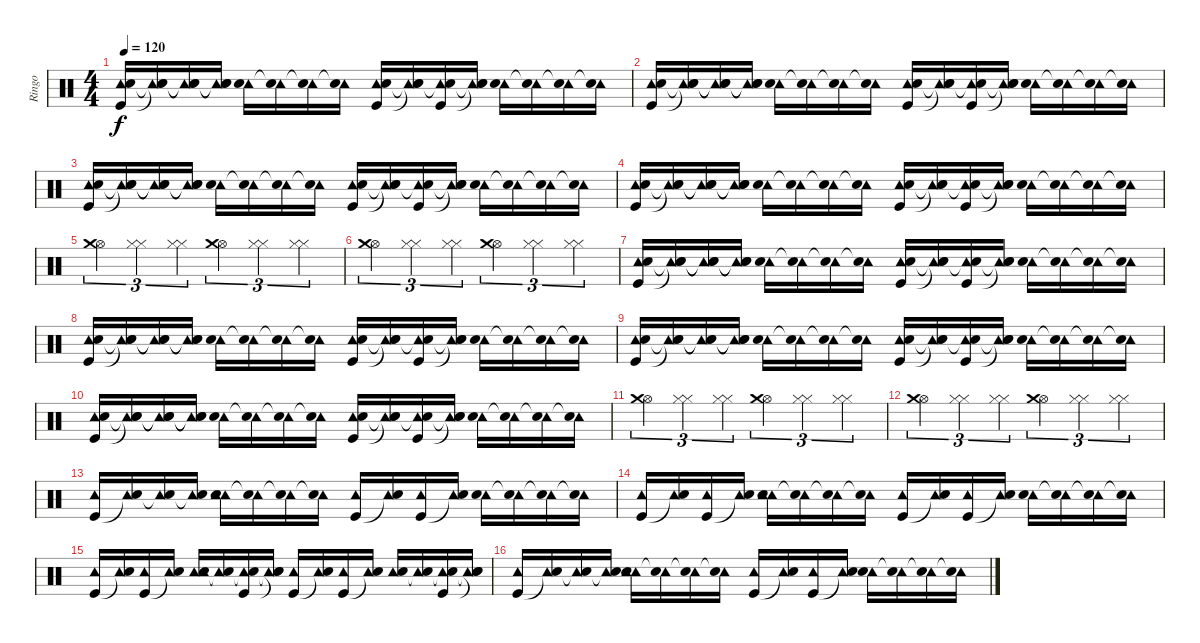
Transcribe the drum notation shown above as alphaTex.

\track ("Ringo" "Ringo") {instrument percussion}
\staff {score}
\articulation defaults
\ts (4 4)
\tempo 120
\clef neutral
\ks c
("Tambourine (hit)" "Snare (hit) 2" "Kick (hit)").16{dy f} ("Tambourine (hit)" "Snare (hit)"{t} "Snare (hit)"{t}).16 ("Tambourine (hit)" "Snare (hit)"{t} "Snare (hit)"{t}).16 ("Tambourine (hit)" "Snare (hit)"{t} "Snare (hit)"{t}).16 ("Tambourine (hit)" "Snare (hit) 2").16 ("Tambourine (hit)" "Snare (hit)"{t}).16 ("Tambourine (hit)" "Snare (hit)"{t}).16 ("Tambourine (hit)" "Snare (hit)"{t}).16 ("Tambourine (hit)" "Snare (hit) 2" "Kick (hit)").16 ("Tambourine (hit)" "Snare (hit)"{t} "Snare (hit)"{t}).16 ("Tambourine (hit)" "Snare (hit)"{t} "Kick (hit)").16 ("Tambourine (hit)" "Snare (hit)"{t} "Snare (hit)"{t}).16 ("Tambourine (hit)" "Snare (hit) 2").16 ("Tambourine (hit)" "Snare (hit)"{t}).16 ("Tambourine (hit)" "Snare (hit)"{t}).16 ("Tambourine (hit)" "Snare (hit)"{t}).16 |
("Tambourine (hit)" "Snare (hit) 2" "Kick (hit)").16 ("Tambourine (hit)" "Snare (hit)"{t} "Snare (hit)"{t}).16 ("Tambourine (hit)" "Snare (hit)"{t} "Snare (hit)"{t}).16 ("Tambourine (hit)" "Snare (hit)"{t} "Snare (hit)"{t}).16 ("Tambourine (hit)" "Snare (hit) 2").16 ("Tambourine (hit)" "Snare (hit)"{t}).16 ("Tambourine (hit)" "Snare (hit)"{t}).16 ("Tambourine (hit)" "Snare (hit)"{t}).16 ("Tambourine (hit)" "Snare (hit) 2" "Kick (hit)").16 ("Tambourine (hit)" "Snare (hit)"{t} "Snare (hit)"{t}).16 ("Tambourine (hit)" "Snare (hit)"{t} "Kick (hit)").16 ("Tambourine (hit)" "Snare (hit)"{t} "Snare (hit)"{t}).16 ("Tambourine (hit)" "Snare (hit) 2").16 ("Tambourine (hit)" "Snare (hit)"{t}).16 ("Tambourine (hit)" "Snare (hit)"{t}).16 ("Tambourine (hit)" "Snare (hit)"{t}).16 |
("Tambourine (hit)" "Snare (hit) 2" "Kick (hit)").16 ("Tambourine (hit)" "Snare (hit)"{t} "Snare (hit)"{t}).16 ("Tambourine (hit)" "Snare (hit)"{t} "Snare (hit)"{t}).16 ("Tambourine (hit)" "Snare (hit)"{t} "Snare (hit)"{t}).16 ("Tambourine (hit)" "Snare (hit) 2").16 ("Tambourine (hit)" "Snare (hit)"{t}).16 ("Tambourine (hit)" "Snare (hit)"{t}).16 ("Tambourine (hit)" "Snare (hit)"{t}).16 ("Tambourine (hit)" "Snare (hit) 2" "Kick (hit)").16 ("Tambourine (hit)" "Snare (hit)"{t} "Snare (hit)"{t}).16 ("Tambourine (hit)" "Snare (hit)"{t} "Kick (hit)").16 ("Tambourine (hit)" "Snare (hit)"{t} "Snare (hit)"{t}).16 ("Tambourine (hit)" "Snare (hit) 2").16 ("Tambourine (hit)" "Snare (hit)"{t}).16 ("Tambourine (hit)" "Snare (hit)"{t}).16 ("Tambourine (hit)" "Snare (hit)"{t}).16 |
("Tambourine (hit)" "Snare (hit) 2" "Kick (hit)").16 ("Tambourine (hit)" "Snare (hit)"{t} "Snare (hit)"{t}).16 ("Tambourine (hit)" "Snare (hit)"{t} "Snare (hit)"{t}).16 ("Tambourine (hit)" "Snare (hit)"{t} "Snare (hit)"{t}).16 ("Tambourine (hit)" "Snare (hit) 2").16 ("Tambourine (hit)" "Snare (hit)"{t}).16 ("Tambourine (hit)" "Snare (hit)"{t}).16 ("Tambourine (hit)" "Snare (hit)"{t}).16 ("Tambourine (hit)" "Snare (hit) 2" "Kick (hit)").16 ("Tambourine (hit)" "Snare (hit)"{t} "Snare (hit)"{t}).16 ("Tambourine (hit)" "Snare (hit)"{t} "Kick (hit)").16 ("Tambourine (hit)" "Snare (hit)"{t} "Snare (hit)"{t}).16 ("Tambourine (hit)" "Snare (hit) 2").16 ("Tambourine (hit)" "Snare (hit)"{t}).16 ("Tambourine (hit)" "Snare (hit)"{t}).16 ("Tambourine (hit)" "Snare (hit)"{t}).16 |
("Hi-Hat (open)" "Crash medium (hit)").4{tu (3 2)} ("Hi-Hat (closed)" "Hi-Hat (closed)").4{tu (3 2)} ("Hi-Hat (closed)" "Hi-Hat (closed)").4{tu (3 2)} ("Hi-Hat (open)" "Crash medium (hit)").4{tu (3 2)} ("Hi-Hat (closed)" "Hi-Hat (closed)").4{tu (3 2)} ("Hi-Hat (closed)" "Hi-Hat (closed)").4{tu (3 2)} |
("Hi-Hat (open)" "Crash medium (hit)").4{tu (3 2)} ("Hi-Hat (closed)" "Hi-Hat (closed)").4{tu (3 2)} ("Hi-Hat (closed)" "Hi-Hat (closed)").4{tu (3 2)} ("Hi-Hat (open)" "Crash medium (hit)").4{tu (3 2)} ("Hi-Hat (closed)" "Hi-Hat (closed)").4{tu (3 2)} ("Hi-Hat (closed)" "Hi-Hat (closed)").4{tu (3 2)} |
("Tambourine (hit)" "Snare (hit) 2" "Kick (hit)").16 ("Tambourine (hit)" "Snare (hit)"{t} "Snare (hit)"{t}).16 ("Tambourine (hit)" "Snare (hit)"{t} "Snare (hit)"{t}).16 ("Tambourine (hit)" "Snare (hit)"{t} "Snare (hit)"{t}).16 ("Tambourine (hit)" "Snare (hit) 2").16 ("Tambourine (hit)" "Snare (hit)"{t}).16 ("Tambourine (hit)" "Snare (hit)"{t}).16 ("Tambourine (hit)" "Snare (hit)"{t}).16 ("Tambourine (hit)" "Snare (hit) 2" "Kick (hit)").16 ("Tambourine (hit)" "Snare (hit)"{t} "Snare (hit)"{t}).16 ("Tambourine (hit)" "Snare (hit)"{t} "Kick (hit)").16 ("Tambourine (hit)" "Snare (hit)"{t} "Snare (hit)"{t}).16 ("Tambourine (hit)" "Snare (hit) 2").16 ("Tambourine (hit)" "Snare (hit)"{t}).16 ("Tambourine (hit)" "Snare (hit)"{t}).16 ("Tambourine (hit)" "Snare (hit)"{t}).16 |
("Tambourine (hit)" "Snare (hit) 2" "Kick (hit)").16 ("Tambourine (hit)" "Snare (hit)"{t} "Snare (hit)"{t}).16 ("Tambourine (hit)" "Snare (hit)"{t} "Snare (hit)"{t}).16 ("Tambourine (hit)" "Snare (hit)"{t} "Snare (hit)"{t}).16 ("Tambourine (hit)" "Snare (hit) 2").16 ("Tambourine (hit)" "Snare (hit)"{t}).16 ("Tambourine (hit)" "Snare (hit)"{t}).16 ("Tambourine (hit)" "Snare (hit)"{t}).16 ("Tambourine (hit)" "Snare (hit) 2" "Kick (hit)").16 ("Tambourine (hit)" "Snare (hit)"{t} "Snare (hit)"{t}).16 ("Tambourine (hit)" "Snare (hit)"{t} "Kick (hit)").16 ("Tambourine (hit)" "Snare (hit)"{t} "Snare (hit)"{t}).16 ("Tambourine (hit)" "Snare (hit) 2").16 ("Tambourine (hit)" "Snare (hit)"{t}).16 ("Tambourine (hit)" "Snare (hit)"{t}).16 ("Tambourine (hit)" "Snare (hit)"{t}).16 |
("Tambourine (hit)" "Snare (hit) 2" "Kick (hit)").16 ("Tambourine (hit)" "Snare (hit)"{t} "Snare (hit)"{t}).16 ("Tambourine (hit)" "Snare (hit)"{t} "Snare (hit)"{t}).16 ("Tambourine (hit)" "Snare (hit)"{t} "Snare (hit)"{t}).16 ("Tambourine (hit)" "Snare (hit) 2").16 ("Tambourine (hit)" "Snare (hit)"{t}).16 ("Tambourine (hit)" "Snare (hit)"{t}).16 ("Tambourine (hit)" "Snare (hit)"{t}).16 ("Tambourine (hit)" "Snare (hit) 2" "Kick (hit)").16 ("Tambourine (hit)" "Snare (hit)"{t} "Snare (hit)"{t}).16 ("Tambourine (hit)" "Snare (hit)"{t} "Kick (hit)").16 ("Tambourine (hit)" "Snare (hit)"{t} "Snare (hit)"{t}).16 ("Tambourine (hit)" "Snare (hit) 2").16 ("Tambourine (hit)" "Snare (hit)"{t}).16 ("Tambourine (hit)" "Snare (hit)"{t}).16 ("Tambourine (hit)" "Snare (hit)"{t}).16 |
("Tambourine (hit)" "Snare (hit) 2" "Kick (hit)").16 ("Tambourine (hit)" "Snare (hit)"{t} "Snare (hit)"{t}).16 ("Tambourine (hit)" "Snare (hit)"{t} "Snare (hit)"{t}).16 ("Tambourine (hit)" "Snare (hit)"{t} "Snare (hit)"{t}).16 ("Tambourine (hit)" "Snare (hit) 2").16 ("Tambourine (hit)" "Snare (hit)"{t}).16 ("Tambourine (hit)" "Snare (hit)"{t}).16 ("Tambourine (hit)" "Snare (hit)"{t}).16 ("Tambourine (hit)" "Snare (hit) 2" "Kick (hit)").16 ("Tambourine (hit)" "Snare (hit)"{t} "Snare (hit)"{t}).16 ("Tambourine (hit)" "Snare (hit)"{t} "Kick (hit)").16 ("Tambourine (hit)" "Snare (hit)"{t} "Snare (hit)"{t}).16 ("Tambourine (hit)" "Snare (hit) 2").16 ("Tambourine (hit)" "Snare (hit)"{t}).16 ("Tambourine (hit)" "Snare (hit)"{t}).16 ("Tambourine (hit)" "Snare (hit)"{t}).16 |
("Hi-Hat (open)" "Crash medium (hit)").4{tu (3 2)} ("Hi-Hat (closed)" "Hi-Hat (closed)").4{tu (3 2)} ("Hi-Hat (closed)" "Hi-Hat (closed)").4{tu (3 2)} ("Hi-Hat (open)" "Crash medium (hit)").4{tu (3 2)} ("Hi-Hat (closed)" "Hi-Hat (closed)").4{tu (3 2)} ("Hi-Hat (closed)" "Hi-Hat (closed)").4{tu (3 2)} |
("Hi-Hat (open)" "Crash medium (hit)").4{tu (3 2)} ("Hi-Hat (closed)" "Hi-Hat (closed)").4{tu (3 2)} ("Hi-Hat (closed)" "Hi-Hat (closed)").4{tu (3 2)} ("Hi-Hat (open)" "Crash medium (hit)").4{tu (3 2)} ("Hi-Hat (closed)" "Hi-Hat (closed)").4{tu (3 2)} ("Hi-Hat (closed)" "Hi-Hat (closed)").4{tu (3 2)} |
("Tambourine (hit)" "Kick (hit)").16 ("Tambourine (hit)" "Snare (hit)"{t}).16 ("Tambourine (hit)" "Snare (hit)"{t}).16 ("Tambourine (hit)" "Snare (hit)"{t}).16 ("Tambourine (hit)" "Tambourine (hit)" "Snare (hit) 2").16 ("Tambourine (hit)" "Snare (hit)"{t}).16 ("Tambourine (hit)" "Snare (hit)"{t}).16 ("Tambourine (hit)" "Snare (hit)"{t}).16 ("Tambourine (hit)" "Kick (hit)").16 ("Tambourine (hit)" "Snare (hit)"{t}).16 ("Tambourine (hit)" "Kick (hit)").16 ("Tambourine (hit)" "Snare (hit)"{t}).16 ("Tambourine (hit)" "Snare (hit) 2").16 ("Tambourine (hit)" "Snare (hit)"{t}).16 ("Tambourine (hit)" "Snare (hit)"{t}).16 ("Tambourine (hit)" "Snare (hit)"{t}).16 |
("Tambourine (hit)" "Kick (hit)").16 ("Tambourine (hit)" "Snare (hit)"{t}).16 ("Tambourine (hit)" "Kick (hit)").16 ("Tambourine (hit)" "Snare (hit)"{t}).16 ("Tambourine (hit)" "Tambourine (hit)" "Snare (hit) 2").16 ("Tambourine (hit)" "Snare (hit)"{t}).16 ("Tambourine (hit)" "Snare (hit)"{t}).16 ("Tambourine (hit)" "Snare (hit)"{t}).16 ("Tambourine (hit)" "Kick (hit)").16 ("Tambourine (hit)" "Snare (hit)"{t}).16 ("Tambourine (hit)" "Kick (hit)").16 ("Tambourine (hit)" "Snare (hit)"{t}).16 ("Tambourine (hit)" "Snare (hit) 2").16 ("Tambourine (hit)" "Snare (hit)"{t}).16 ("Tambourine (hit)" "Snare (hit)"{t}).16 ("Tambourine (hit)" "Snare (hit)"{t}).16 |
("Tambourine (hit)" "Kick (hit)").16 ("Tambourine (hit)" "Snare (hit)"{t}).16 ("Tambourine (hit)" "Kick (hit)").16 ("Tambourine (hit)" "Snare (hit)"{t}).16 ("Tambourine (hit)" "Tambourine (hit)" "Snare (hit) 2").16 ("Tambourine (hit)" "Snare (hit)"{t}).16 ("Tambourine (hit)" "Snare (hit)"{t} "Kick (hit)").16 ("Tambourine (hit)" "Snare (hit)"{t} "Snare (hit)"{t}).16 ("Tambourine (hit)" "Kick (hit)").16 ("Tambourine (hit)" "Snare (hit)"{t}).16 ("Tambourine (hit)" "Kick (hit)").16 ("Tambourine (hit)" "Snare (hit)"{t}).16 ("Tambourine (hit)" "Snare (hit) 2").16 ("Tambourine (hit)" "Snare (hit)"{t}).16 ("Tambourine (hit)" "Snare (hit)"{t} "Kick (hit)").16 ("Tambourine (hit)" "Snare (hit)"{t} "Snare (hit)"{t}).16 |
("Tambourine (hit)" "Kick (hit)").16 ("Tambourine (hit)" "Snare (hit)"{t}).16 ("Tambourine (hit)" "Snare (hit)"{t}).16 ("Tambourine (hit)" "Snare (hit)"{t}).16 ("Tambourine (hit)" "Tambourine (hit)" "Snare (hit) 2").16 ("Tambourine (hit)" "Snare (hit)"{t}).16 ("Tambourine (hit)" "Snare (hit)"{t}).16 ("Tambourine (hit)" "Snare (hit)"{t}).16 ("Tambourine (hit)" "Kick (hit)").16 ("Tambourine (hit)" "Snare (hit)"{t}).16 ("Tambourine (hit)" "Kick (hit)").16 ("Tambourine (hit)" "Snare (hit)"{t}).16 ("Tambourine (hit)" "Snare (hit) 2").16 ("Tambourine (hit)" "Snare (hit)"{t}).16 ("Tambourine (hit)" "Snare (hit)"{t}).16 ("Tambourine (hit)" "Snare (hit)"{t}).16
